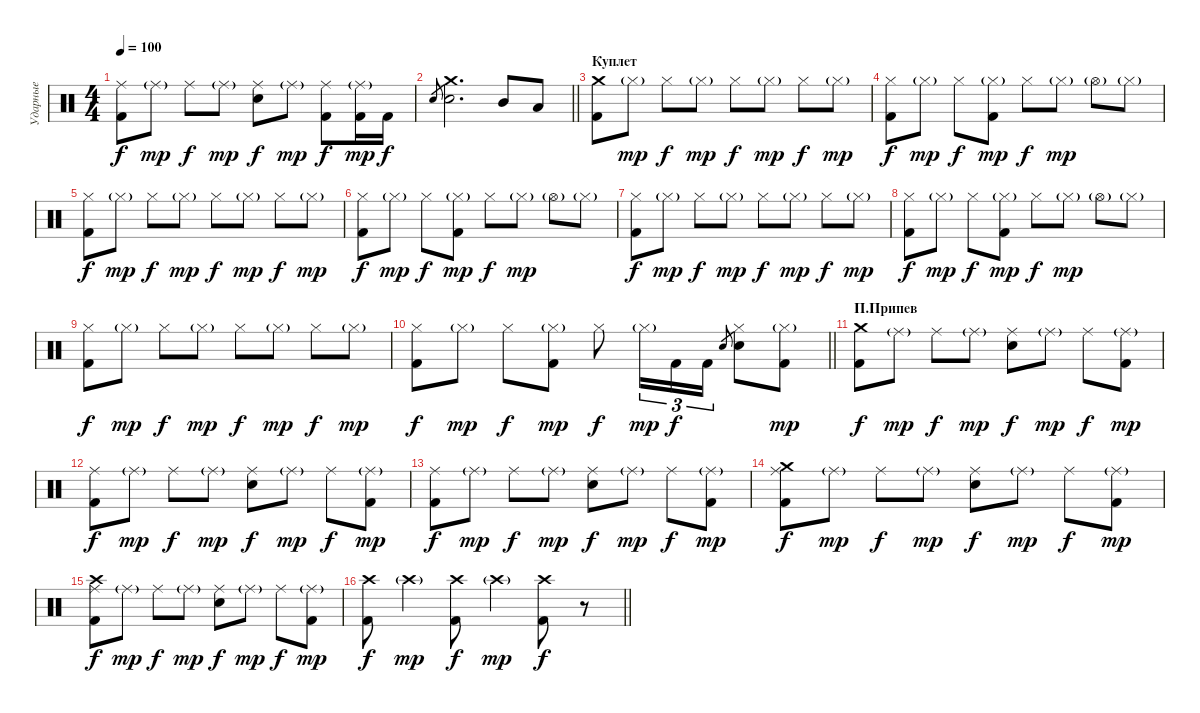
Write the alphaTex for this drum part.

\track ("Ударные" "Ударные") {instrument percussion}
\staff {score}
\articulation defaults
\ts (4 4)
\tempo 100
\clef neutral
\ks c
("Ride (middle)" "Kick (hit) 2").8{dy f} "Ride (middle)"{g}.8{dy mp} "Ride (middle)".8{dy f} "Ride (middle)"{g}.8{dy mp} ("Ride (middle)" "Snare (hit) 2").8{dy f} "Ride (middle)"{g}.8{dy mp} ("Ride (middle)" "Kick (hit) 2").8{dy f} ("Ride (middle)"{g} "Kick (hit) 2").16{dy mp} "Kick (hit) 2".16{dy f} |
\barLineRight lightlight "Snare (hit) 2".8{gr}
("Crash medium (hit)" "Snare (hit) 2").2{d} "Mid Tom (hit)".8 "Low Tom (hit)".8 |
\section ("" "Куплет")
("Crash medium (hit)" "Kick (hit) 2").8 "Hi-Hat (closed)"{g}.8{dy mp} "Hi-Hat (closed)".8{dy f} "Hi-Hat (closed)"{g}.8{dy mp} "Hi-Hat (closed)".8{dy f} "Hi-Hat (closed)"{g}.8{dy mp} "Hi-Hat (closed)".8{dy f} "Hi-Hat (closed)"{g}.8{dy mp} |
("Kick (hit) 2" "Hi-Hat (closed)").8{dy f} "Hi-Hat (closed)"{g}.8{dy mp} "Hi-Hat (closed)".8{dy f} ("Kick (hit) 2" "Hi-Hat (closed)"{g}).8{dy mp} "Hi-Hat (closed)".8{dy f} "Hi-Hat (closed)"{g}.8{dy mp} "Hi-Hat (open)"{g}.8 "Hi-Hat (closed)"{g}.8 |
("Kick (hit) 2" "Hi-Hat (closed)").8{dy f} "Hi-Hat (closed)"{g}.8{dy mp} "Hi-Hat (closed)".8{dy f} "Hi-Hat (closed)"{g}.8{dy mp} "Hi-Hat (closed)".8{dy f} "Hi-Hat (closed)"{g}.8{dy mp} "Hi-Hat (closed)".8{dy f} "Hi-Hat (closed)"{g}.8{dy mp} |
("Kick (hit) 2" "Hi-Hat (closed)").8{dy f} "Hi-Hat (closed)"{g}.8{dy mp} "Hi-Hat (closed)".8{dy f} ("Kick (hit) 2" "Hi-Hat (closed)"{g}).8{dy mp} "Hi-Hat (closed)".8{dy f} "Hi-Hat (closed)"{g}.8{dy mp} "Hi-Hat (open)"{g}.8 "Hi-Hat (closed)"{g}.8 |
("Kick (hit) 2" "Hi-Hat (closed)").8{dy f} "Hi-Hat (closed)"{g}.8{dy mp} "Hi-Hat (closed)".8{dy f} "Hi-Hat (closed)"{g}.8{dy mp} "Hi-Hat (closed)".8{dy f} "Hi-Hat (closed)"{g}.8{dy mp} "Hi-Hat (closed)".8{dy f} "Hi-Hat (closed)"{g}.8{dy mp} |
("Kick (hit) 2" "Hi-Hat (closed)").8{dy f} "Hi-Hat (closed)"{g}.8{dy mp} "Hi-Hat (closed)".8{dy f} ("Kick (hit) 2" "Hi-Hat (closed)"{g}).8{dy mp} "Hi-Hat (closed)".8{dy f} "Hi-Hat (closed)"{g}.8{dy mp} "Hi-Hat (open)"{g}.8 "Hi-Hat (closed)"{g}.8 |
("Kick (hit) 2" "Hi-Hat (closed)").8{dy f} "Hi-Hat (closed)"{g}.8{dy mp} "Hi-Hat (closed)".8{dy f} "Hi-Hat (closed)"{g}.8{dy mp} "Hi-Hat (closed)".8{dy f} "Hi-Hat (closed)"{g}.8{dy mp} "Hi-Hat (closed)".8{dy f} "Hi-Hat (closed)"{g}.8{dy mp} |
\barLineRight lightlight
("Kick (hit) 2" "Hi-Hat (closed)").8{dy f} "Hi-Hat (closed)"{g}.8{dy mp} "Hi-Hat (closed)".8{dy f} ("Kick (hit) 2" "Hi-Hat (closed)"{g}).8{dy mp} "Hi-Hat (closed)".8{dy f} "Hi-Hat (closed)"{g}.16{tu (3 2) dy mp} "Kick (hit) 2".16{tu (3 2) dy f} "Kick (hit) 2".16{tu (3 2)} "Snare (hit) 2".8{gr} ("Snare (hit) 2" "Hi-Hat (closed)").8 ("Kick (hit) 2" "Hi-Hat (closed)"{g}).8{dy mp} |
\section ("" "П.Припев")
("Crash medium (hit)" "Kick (hit) 2").8{dy f} "Ride (middle)"{g}.8{dy mp} "Ride (middle)".8{dy f} "Ride (middle)"{g}.8{dy mp} ("Ride (middle)" "Snare (hit) 2").8{dy f} "Ride (middle)"{g}.8{dy mp} "Ride (middle)".8{dy f} ("Ride (middle)"{g} "Kick (hit) 2").8{dy mp} |
("Ride (middle)" "Kick (hit) 2").8{dy f} "Ride (middle)"{g}.8{dy mp} "Ride (middle)".8{dy f} "Ride (middle)"{g}.8{dy mp} ("Ride (middle)" "Snare (hit) 2").8{dy f} "Ride (middle)"{g}.8{dy mp} "Ride (middle)".8{dy f} ("Ride (middle)"{g} "Kick (hit) 2").8{dy mp} |
("Ride (middle)" "Kick (hit) 2").8{dy f} "Ride (middle)"{g}.8{dy mp} "Ride (middle)".8{dy f} "Ride (middle)"{g}.8{dy mp} ("Ride (middle)" "Snare (hit) 2").8{dy f} "Ride (middle)"{g}.8{dy mp} "Ride (middle)".8{dy f} ("Ride (middle)"{g} "Kick (hit) 2").8{dy mp} |
("Ride (middle)" "Crash medium (hit)" "Kick (hit) 2").8{dy f} "Ride (middle)"{g}.8{dy mp} "Ride (middle)".8{dy f} "Ride (middle)"{g}.8{dy mp} ("Ride (middle)" "Snare (hit) 2").8{dy f} "Ride (middle)"{g}.8{dy mp} "Ride (middle)".8{dy f} ("Ride (middle)"{g} "Kick (hit) 2").8{dy mp} |
("Ride (middle)" "Crash high (hit)" "Kick (hit) 2").8{dy f} "Ride (middle)"{g}.8{dy mp} "Ride (middle)".8{dy f} "Ride (middle)"{g}.8{dy mp} ("Ride (middle)" "Snare (hit) 2").8{dy f} "Ride (middle)"{g}.8{dy mp} "Ride (middle)".8{dy f} ("Ride (middle)"{g} "Kick (hit) 2").8{dy mp} |
\barLineRight lightlight
("Kick (hit) 2" "Crash high (hit)").8{dy f} "Crash high (hit)"{g}.4{dy mp volume 0} ("Kick (hit) 2" "Crash high (hit)").8{dy f volume 13} "Crash high (hit)"{g}.4{dy mp volume 0} ("Kick (hit) 2" "Crash high (hit)").8{dy f volume 13} r.8
